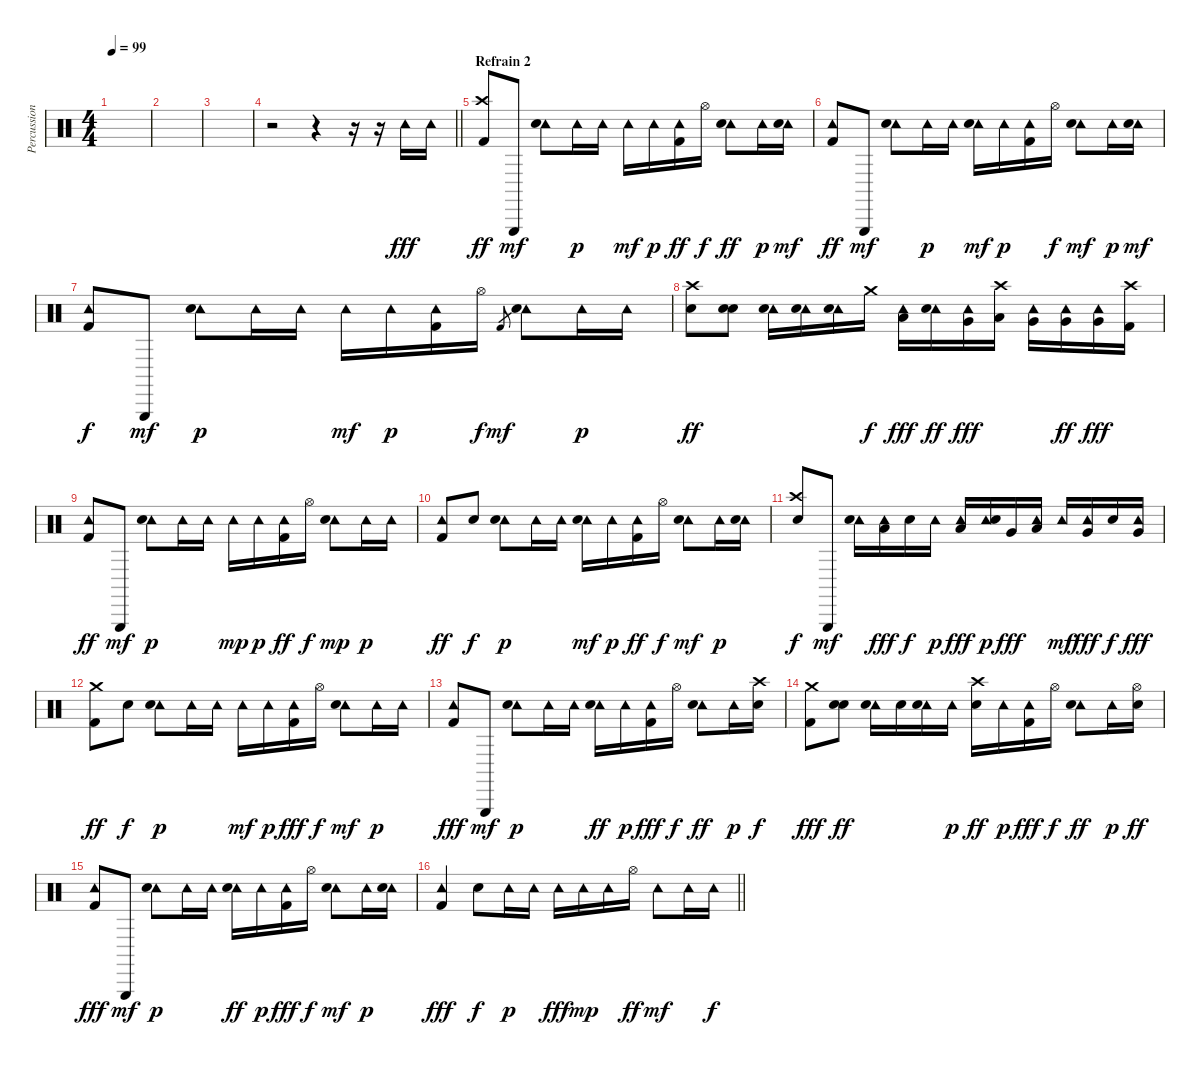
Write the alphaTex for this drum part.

\track ("Percussion" "Percussion") {instrument percussion}
\staff {score}
\articulation defaults
\ts (4 4)
\tempo 99
\clef neutral
\ks c
|
|
|
\barLineRight lightlight
r.2 r.4 r.16 r.16 "Tambourine (hit)".16{dy fff volume 5} "Tambourine (hit)".16 |
\section ("" "Refrain 2")
("Crash high (hit)" "Kick (hit) 2").8{dy ff volume 9} "Triangle (hit)".8{dy mf} ("Tambourine (hit)" "Snare (hit) 2").8 "Tambourine (hit)".16{dy p} "Tambourine (hit)".16 "Tambourine (hit)".16{dy mf} "Tambourine (hit)".16{dy p} ("Tambourine (hit)" "Kick (hit) 2").16{dy ff} "Hi-Hat (open)".16{dy f} ("Tambourine (hit)" "Snare (hit) 2").8{dy ff} "Tambourine (hit)".16{dy p} ("Tambourine (hit)" "Electric Snare (hit)").16{dy mf} |
("Tambourine (hit)" "Kick (hit) 2").8{dy ff} "Triangle (hit)".8{dy mf} ("Tambourine (hit)" "Snare (hit) 2").8 "Tambourine (hit)".16{dy p} "Tambourine (hit)".16 ("Tambourine (hit)" "Snare (hit) 2").16{dy mf} "Tambourine (hit)".16{dy p} ("Tambourine (hit)" "Kick (hit) 2").16 "Hi-Hat (open)".16{dy f} ("Tambourine (hit)" "Snare (hit) 2").8{dy mf} "Tambourine (hit)".16{dy p} ("Tambourine (hit)" "Electric Snare (hit)").16{dy mf} |
("Tambourine (hit)" "Kick (hit) 2").8{dy f} "Triangle (hit)".8{dy mf} ("Tambourine (hit)" "Snare (hit) 2").8{dy p} "Tambourine (hit)".16 "Tambourine (hit)".16 "Tambourine (hit)".16{dy mf} "Tambourine (hit)".16{dy p} ("Tambourine (hit)" "Kick (hit) 2").16 "Hi-Hat (open)".16{dy f} "Kick (hit) 2".8{gr dy mf} ("Tambourine (hit)" "Snare (hit) 2").8 "Tambourine (hit)".16{dy p} "Tambourine (hit)".16 |
("Crash high (hit)" "Snare (hit) 2").8{dy ff} ("Metronome (bell)" "Electric Snare (hit)").8 ("Tambourine (hit)" "Electric Snare (hit)").16 ("Tambourine (hit)" "Electric Snare (hit)").16 ("Tambourine (hit)" "Electric Snare (hit)").16 "Crash medium (hit)".16{dy f} ("Tambourine (hit)" "Low Tom (hit)").16{dy fff} ("Tambourine (hit)" "Electric Snare (hit)").16{dy ff} ("Tambourine (hit)" "Very Low Tom (hit)").16{dy fff} ("Crash high (hit)"{pm} "Low Tom (hit)").16 ("Tambourine (hit)" "Very Low Tom (hit)").16 ("Tambourine (hit)" "Very Low Tom (hit)").16{dy ff} ("Tambourine (hit)" "Very Low Tom (hit)").16{dy fff} ("Crash high (hit)" "Kick (hit) 2").16 |
("Tambourine (hit)" "Kick (hit) 2").8{dy ff} "Triangle (hit)".8{dy mf} ("Tambourine (hit)" "Snare (hit) 2").8{dy p} "Tambourine (hit)".16 "Tambourine (hit)".16 "Tambourine (hit)".16{dy mp} "Tambourine (hit)".16{dy p} ("Tambourine (hit)" "Kick (hit) 2").16{dy ff} "Hi-Hat (open)".16{dy f} ("Tambourine (hit)" "Snare (hit) 2").8{dy mp} "Tambourine (hit)".16{dy p} "Tambourine (hit)".16 |
("Tambourine (hit)" "Kick (hit) 2").8{dy ff} "Metronome (bell)".8{dy f} ("Tambourine (hit)" "Snare (hit) 2").8{dy p} "Tambourine (hit)".16 "Tambourine (hit)".16 ("Tambourine (hit)" "Snare (hit) 2").16{dy mf} "Tambourine (hit)".16{dy p} ("Tambourine (hit)" "Kick (hit) 2").16{dy ff} "Hi-Hat (open)".16{dy f} ("Tambourine (hit)" "Snare (hit) 2").8{dy mf} "Tambourine (hit)".16{dy p} ("Tambourine (hit)" "Electric Snare (hit)").16 |
("Crash high (hit)" "Snare (hit) 2").8{dy f} "Triangle (hit)".8{dy mf} ("Tambourine (hit)" "Electric Snare (hit)").16 ("Tambourine (hit)" "Low Tom (hit)").16{dy fff} "Electric Snare (hit)".16{dy f} "Tambourine (hit)".16{dy p} ("Tambourine (hit)" "Low Tom (hit)").16{dy fff} ("Tambourine (hit)" "Electric Snare (hit)").16{dy p} "Very Low Tom (hit)".16{dy fff} ("Tambourine (hit)" "Low Tom (hit)").16 "Tambourine (hit)".16{dy mf} ("Tambourine (hit)" "Very Low Tom (hit)").16{dy fff} "Electric Snare (hit)".16{dy f} ("Tambourine (hit)" "Very Low Tom (hit)").16{dy fff} |
("Crash medium (hit)" "Kick (hit) 2").8{dy ff} "Metronome (bell)".8{dy f} ("Tambourine (hit)" "Snare (hit) 2").8{dy p} "Tambourine (hit)".16 "Tambourine (hit)".16 "Tambourine (hit)".16{dy mf} "Tambourine (hit)".16{dy p} ("Tambourine (hit)" "Kick (hit) 2").16{dy fff} "Hi-Hat (open)".16{dy f} ("Tambourine (hit)" "Snare (hit) 2").8{dy mf} "Tambourine (hit)".16{dy p} "Tambourine (hit)".16 |
("Tambourine (hit)" "Kick (hit) 2").8{dy fff} "Triangle (hit)".8{dy mf} ("Tambourine (hit)" "Snare (hit) 2").8{dy p} "Tambourine (hit)".16 "Tambourine (hit)".16 ("Tambourine (hit)" "Snare (hit) 2").16{dy ff} "Tambourine (hit)".16{dy p} ("Tambourine (hit)" "Kick (hit) 2").16{dy fff} "Hi-Hat (open)".16{dy f} ("Tambourine (hit)" "Snare (hit) 2").8{dy ff} "Tambourine (hit)".16{dy p} ("Crash high (hit)" "Snare (hit) 2").16{dy f} |
("Crash medium (hit)" "Kick (hit) 2").8{dy fff} ("Metronome (bell)" "Snare (hit) 2").8{dy ff} ("Tambourine (hit)" "Snare (hit) 2").16 "Electric Snare (hit)".16 ("Tambourine (hit)" "Snare (hit) 2").16 "Tambourine (hit)".16{dy p} ("Crash high (hit)" "Snare (hit) 2").16{dy ff} "Tambourine (hit)".16{dy p} ("Tambourine (hit)" "Kick (hit) 2").16{dy fff} "Hi-Hat (open)".16{dy f} ("Tambourine (hit)" "Snare (hit) 2").8{dy ff} "Tambourine (hit)".16{dy p} ("Hi-Hat (open)" "Snare (hit) 2").16{dy ff} |
("Tambourine (hit)" "Kick (hit) 2").8{dy fff} "Triangle (hit)".8{dy mf} ("Tambourine (hit)" "Snare (hit) 2").8{dy p} "Tambourine (hit)".16 "Tambourine (hit)".16 ("Tambourine (hit)" "Snare (hit) 2").16{dy ff} "Tambourine (hit)".16{dy p} ("Tambourine (hit)" "Kick (hit) 2").16{dy fff} "Hi-Hat (open)".16{dy f} ("Tambourine (hit)" "Snare (hit) 2").8{dy mf} "Tambourine (hit)".16{dy p} ("Tambourine (hit)" "Snare (hit) 2").16 |
\barLineRight lightlight
("Tambourine (hit)" "Kick (hit) 2").4{dy fff volume 5} "Metronome (bell)".8{dy f} "Tambourine (hit)".16{dy p} "Tambourine (hit)".16 "Tambourine (hit)".16{dy fff} "Tambourine (hit)".16{dy mp} "Tambourine (hit)".16 "Hi-Hat (open)".16{dy ff} "Tambourine (hit)".8{dy mf} "Tambourine (hit)".16 "Tambourine (hit)".16{dy f}
